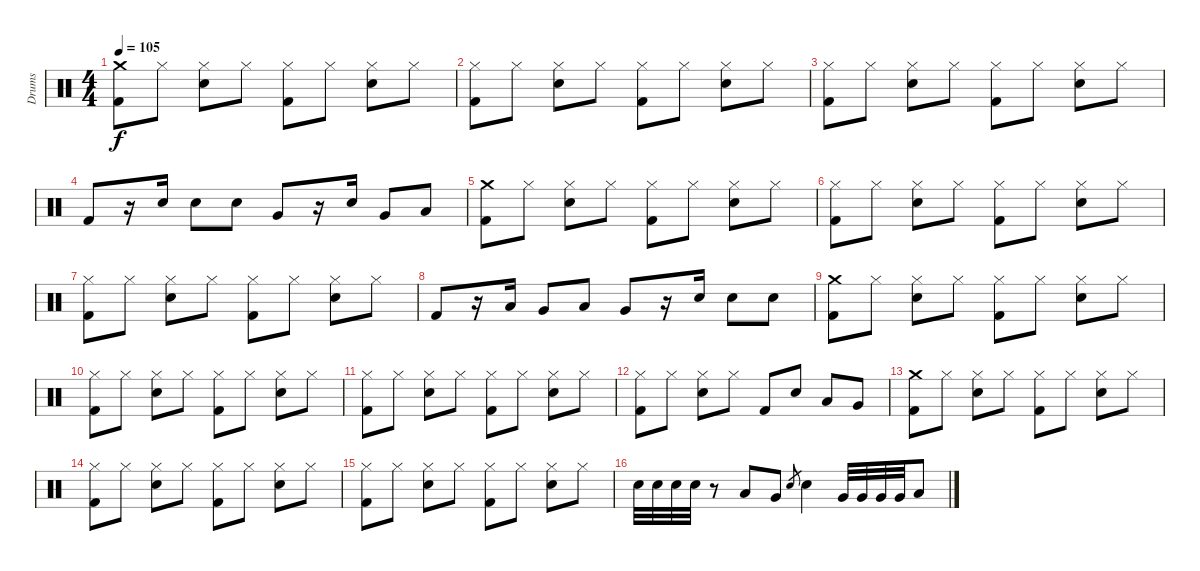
\track ("Drums" "Drums") {instrument percussion}
\staff {score}
\articulation defaults
\ts (4 4)
\tempo 105
\clef neutral
\ks c
("Crash medium (hit)" "Kick (hit) 2").8{dy f} "Hi-Hat (closed)".8 ("Hi-Hat (closed)" "Snare (hit) 2").8 "Hi-Hat (closed)".8 ("Hi-Hat (closed)" "Kick (hit) 2").8 "Hi-Hat (closed)".8 ("Hi-Hat (closed)" "Snare (hit) 2").8 "Hi-Hat (closed)".8 |
("Hi-Hat (closed)" "Kick (hit) 2").8 "Hi-Hat (closed)".8 ("Hi-Hat (closed)" "Snare (hit) 2").8 "Hi-Hat (closed)".8 ("Hi-Hat (closed)" "Kick (hit) 2").8 "Hi-Hat (closed)".8 ("Hi-Hat (closed)" "Snare (hit) 2").8 "Hi-Hat (closed)".8 |
("Hi-Hat (closed)" "Kick (hit) 2").8 "Hi-Hat (closed)".8 ("Hi-Hat (closed)" "Snare (hit) 2").8 "Hi-Hat (closed)".8 ("Hi-Hat (closed)" "Kick (hit) 2").8 "Hi-Hat (closed)".8 ("Hi-Hat (closed)" "Snare (hit) 2").8 "Hi-Hat (closed)".8 |
"Kick (hit) 2".8 r.16 "Snare (hit) 2".16 "Snare (hit) 2".8 "Snare (hit) 2".8 "Very Low Tom (hit)".8 r.16 "Snare (hit) 2".16 "Very Low Tom (hit)".8 "Low Floor Tom (hit)".8 |
("Crash medium (hit)" "Kick (hit) 2").8 "Hi-Hat (closed)".8 ("Hi-Hat (closed)" "Snare (hit) 2").8 "Hi-Hat (closed)".8 ("Hi-Hat (closed)" "Kick (hit) 2").8 "Hi-Hat (closed)".8 ("Hi-Hat (closed)" "Snare (hit) 2").8 "Hi-Hat (closed)".8 |
("Hi-Hat (closed)" "Kick (hit) 2").8 "Hi-Hat (closed)".8 ("Hi-Hat (closed)" "Snare (hit) 2").8 "Hi-Hat (closed)".8 ("Hi-Hat (closed)" "Kick (hit) 2").8 "Hi-Hat (closed)".8 ("Hi-Hat (closed)" "Snare (hit) 2").8 "Hi-Hat (closed)".8 |
("Hi-Hat (closed)" "Kick (hit) 2").8 "Hi-Hat (closed)".8 ("Hi-Hat (closed)" "Snare (hit) 2").8 "Hi-Hat (closed)".8 ("Hi-Hat (closed)" "Kick (hit) 2").8 "Hi-Hat (closed)".8 ("Hi-Hat (closed)" "Snare (hit) 2").8 "Hi-Hat (closed)".8 |
"Kick (hit) 2".8 r.16 "Low Tom (hit)".16 "Very Low Tom (hit)".8 "Low Floor Tom (hit)".8 "Very Low Tom (hit)".8 r.16 "Snare (hit) 2".16 "Snare (hit) 2".8 "Snare (hit) 2".8 |
("Crash medium (hit)" "Kick (hit) 2").8 "Hi-Hat (closed)".8 ("Hi-Hat (closed)" "Snare (hit) 2").8 "Hi-Hat (closed)".8 ("Hi-Hat (closed)" "Kick (hit) 2").8 "Hi-Hat (closed)".8 ("Hi-Hat (closed)" "Snare (hit) 2").8 "Hi-Hat (closed)".8 |
("Hi-Hat (closed)" "Kick (hit) 2").8 "Hi-Hat (closed)".8 ("Hi-Hat (closed)" "Snare (hit) 2").8 "Hi-Hat (closed)".8 ("Hi-Hat (closed)" "Kick (hit) 2").8 "Hi-Hat (closed)".8 ("Hi-Hat (closed)" "Snare (hit) 2").8 "Hi-Hat (closed)".8 |
("Hi-Hat (closed)" "Kick (hit) 2").8 "Hi-Hat (closed)".8 ("Hi-Hat (closed)" "Snare (hit) 2").8 "Hi-Hat (closed)".8 ("Hi-Hat (closed)" "Kick (hit) 2").8 "Hi-Hat (closed)".8 ("Hi-Hat (closed)" "Snare (hit) 2").8 "Hi-Hat (closed)".8 |
("Hi-Hat (closed)" "Kick (hit) 2").8 "Hi-Hat (closed)".8 ("Hi-Hat (closed)" "Snare (hit) 2").8 "Hi-Hat (closed)".8 "Kick (hit) 2".8 "Snare (hit) 2".8 "Low Tom (hit)".8 "Very Low Tom (hit)".8 |
("Crash medium (hit)" "Kick (hit) 2").8 "Hi-Hat (closed)".8 ("Hi-Hat (closed)" "Snare (hit) 2").8 "Hi-Hat (closed)".8 ("Hi-Hat (closed)" "Kick (hit) 2").8 "Hi-Hat (closed)".8 ("Hi-Hat (closed)" "Snare (hit) 2").8 "Hi-Hat (closed)".8 |
("Hi-Hat (closed)" "Kick (hit) 2").8 "Hi-Hat (closed)".8 ("Hi-Hat (closed)" "Snare (hit) 2").8 "Hi-Hat (closed)".8 ("Hi-Hat (closed)" "Kick (hit) 2").8 "Hi-Hat (closed)".8 ("Hi-Hat (closed)" "Snare (hit) 2").8 "Hi-Hat (closed)".8 |
("Hi-Hat (closed)" "Kick (hit) 2").8 "Hi-Hat (closed)".8 ("Hi-Hat (closed)" "Snare (hit) 2").8 "Hi-Hat (closed)".8 ("Hi-Hat (closed)" "Kick (hit) 2").8 "Hi-Hat (closed)".8 ("Hi-Hat (closed)" "Snare (hit) 2").8 "Hi-Hat (closed)".8 |
"Snare (hit) 2".32 "Snare (hit) 2".32 "Snare (hit) 2".32 "Snare (hit) 2".32 r.8 "Low Tom (hit)".8 "Very Low Tom (hit)".8 "Snare (hit) 2".8{gr} "Snare (hit) 2".4 "Very Low Tom (hit)".32 "Very Low Tom (hit)".32 "Very Low Tom (hit)".32 "Very Low Tom (hit)".32 "Low Floor Tom (hit)".8
